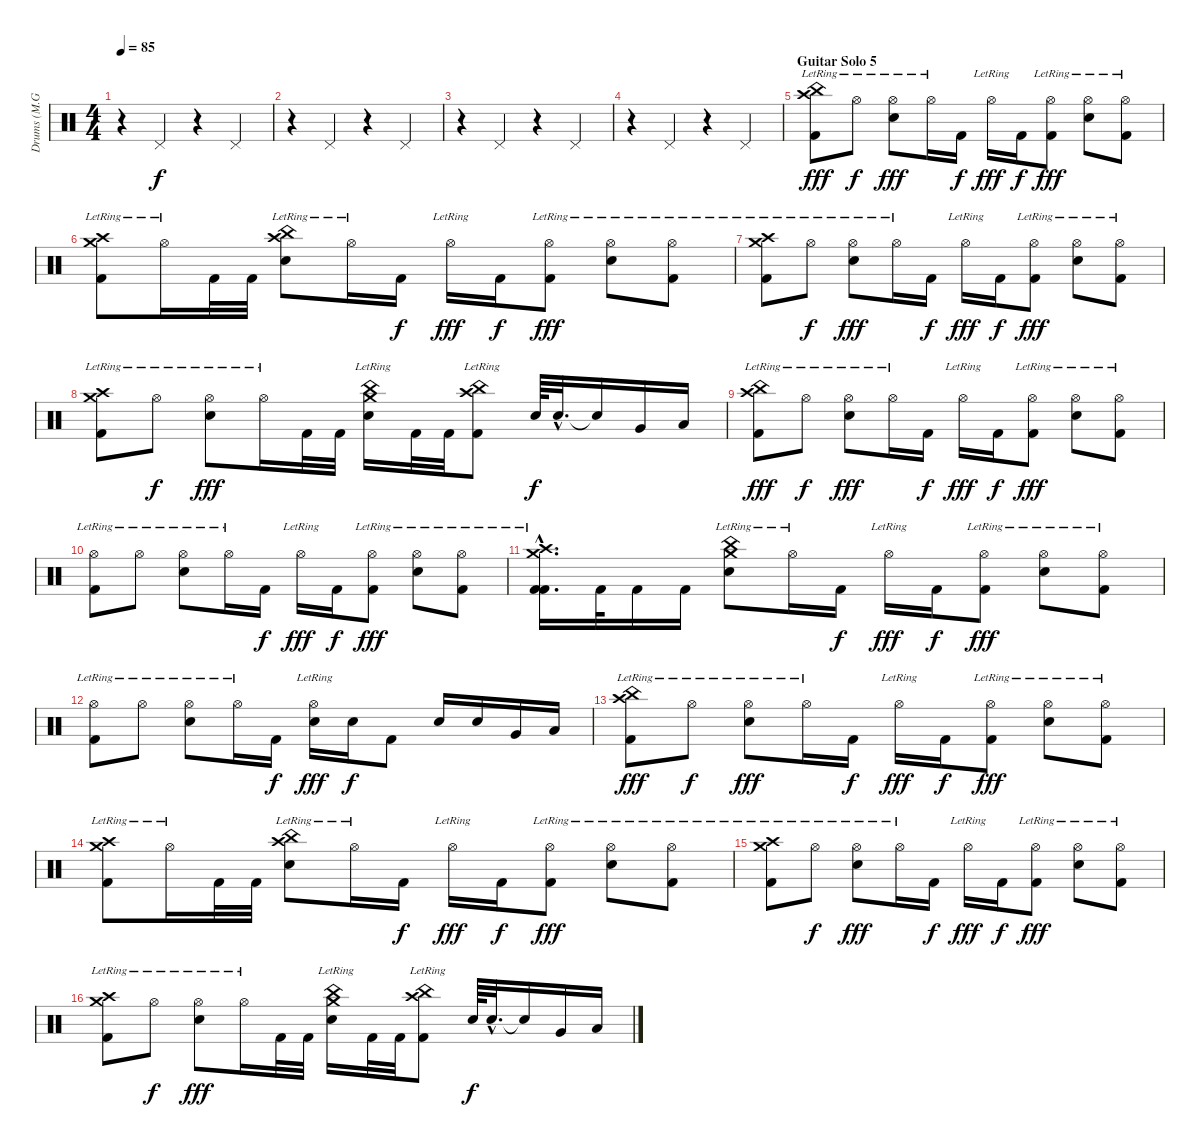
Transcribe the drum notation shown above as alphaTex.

\track ("Drums (M.Grosskopf)" "Drums (M.G") {instrument percussion}
\staff {score}
\articulation defaults
\ts (4 4)
\tempo 85
\clef neutral
\ks c
r.4{dy f} "Pedal Hi-Hat (hit)".4 r.4 "Pedal Hi-Hat (hit)".4 |
r.4 "Pedal Hi-Hat (hit)".4 r.4 "Pedal Hi-Hat (hit)".4 |
r.4 "Pedal Hi-Hat (hit)".4 r.4 "Pedal Hi-Hat (hit)".4 |
r.4 "Pedal Hi-Hat (hit)".4 r.4 "Pedal Hi-Hat (hit)".4 |
\section ("" "Guitar Solo 5")
("Crash high (hit)"{lr} "Kick (hit) 2" "China (hit)"{lr}).8{dy fff} "Hi-Hat (open)"{lr}.8{dy f} ("Hi-Hat (open)"{lr} "Electric Snare (hit)").8{dy fff} "Hi-Hat (open)"{lr}.16 "Kick (hit) 2".16{dy f} "Hi-Hat (open)"{lr}.16{dy fff} "Kick (hit) 2".16{dy f} ("Hi-Hat (open)"{lr} "Kick (hit) 2").8{dy fff} ("Hi-Hat (open)"{lr} "Electric Snare (hit)").8 ("Hi-Hat (open)"{lr} "Kick (hit) 2").8 |
("Crash high (hit)"{lr} "Crash medium (hit)"{lr} "Kick (hit) 2").8 "Hi-Hat (open)"{lr}.16 "Kick (hit) 2".32 "Kick (hit) 2".32 ("Crash high (hit)"{lr} "Electric Snare (hit)" "China (hit)"{lr}).8 "Hi-Hat (open)"{lr}.16 "Kick (hit) 2".16{dy f} "Hi-Hat (open)"{lr}.16{dy fff} "Kick (hit) 2".16{dy f} ("Hi-Hat (open)"{lr} "Kick (hit) 2").8{dy fff} ("Hi-Hat (open)"{lr} "Electric Snare (hit)").8 ("Hi-Hat (open)"{lr} "Kick (hit) 2").8 |
("Crash high (hit)"{lr} "Crash medium (hit)"{lr} "Kick (hit) 2").8 "Hi-Hat (open)"{lr}.8{dy f} ("Hi-Hat (open)"{lr} "Electric Snare (hit)").8{dy fff} "Hi-Hat (open)"{lr}.16 "Kick (hit) 2".16{dy f} "Hi-Hat (open)"{lr}.16{dy fff} "Kick (hit) 2".16{dy f} ("Hi-Hat (open)"{lr} "Kick (hit) 2").8{dy fff} ("Hi-Hat (open)"{lr} "Electric Snare (hit)").8 ("Hi-Hat (open)"{lr} "Kick (hit) 2").8 |
("Crash high (hit)"{lr} "Crash medium (hit)"{lr} "Kick (hit) 2").8 "Hi-Hat (open)"{lr}.8{dy f} ("Hi-Hat (open)"{lr} "Electric Snare (hit)").8{dy fff} "Hi-Hat (open)"{lr}.16 "Kick (hit) 2".32 "Kick (hit) 2".32 ("Crash medium (hit)"{lr} "China (hit)"{lr} "Electric Snare (hit)").16 "Kick (hit) 2".32 "Kick (hit) 2".32 ("Crash high (hit)"{lr} "China (hit)"{lr} "Kick (hit) 2").8 "Electric Snare (hit)".64{dy f} "Electric Snare (hit)"{hac}.32{d} "Snare (hit)"{t}.16 "Very Low Tom (hit)".16 "Low Floor Tom (hit)".16 |
("Crash high (hit)"{lr} "Kick (hit) 2" "China (hit)"{lr}).8{dy fff} "Hi-Hat (open)"{lr}.8{dy f} ("Hi-Hat (open)"{lr} "Electric Snare (hit)").8{dy fff} "Hi-Hat (open)"{lr}.16 "Kick (hit) 2".16{dy f} "Hi-Hat (open)"{lr}.16{dy fff} "Kick (hit) 2".16{dy f} ("Hi-Hat (open)"{lr} "Kick (hit) 2").8{dy fff} ("Hi-Hat (open)"{lr} "Electric Snare (hit)").8 ("Hi-Hat (open)"{lr} "Kick (hit) 2").8 |
("Hi-Hat (open)"{lr} "Kick (hit) 2").8 "Hi-Hat (open)"{lr}.8 ("Hi-Hat (open)"{lr} "Electric Snare (hit)").8 "Hi-Hat (open)"{lr}.16 "Kick (hit) 2".16{dy f} "Hi-Hat (open)"{lr}.16{dy fff} "Kick (hit) 2".16{dy f} ("Hi-Hat (open)"{lr} "Kick (hit) 2").8{dy fff} ("Hi-Hat (open)"{lr} "Electric Snare (hit)").8 ("Hi-Hat (open)"{lr} "Kick (hit) 2").8 |
("Crash high (hit)"{hac lr} "Crash medium (hit)"{hac lr} "Kick (hit) 2"{hac} "Kick (hit) 2"{hac}).16{d} "Kick (hit) 2".32 "Kick (hit) 2".16 "Kick (hit) 2".16 ("China (hit)"{lr} "Crash medium (hit)"{lr} "Electric Snare (hit)").8 "Hi-Hat (open)"{lr}.16 "Kick (hit) 2".16{dy f} "Hi-Hat (open)"{lr}.16{dy fff} "Kick (hit) 2".16{dy f} ("Hi-Hat (open)"{lr} "Kick (hit) 2").8{dy fff} ("Hi-Hat (open)"{lr} "Electric Snare (hit)").8 ("Hi-Hat (open)"{lr} "Kick (hit) 2").8 |
("Hi-Hat (open)"{lr} "Kick (hit) 2").8 "Hi-Hat (open)"{lr}.8 ("Hi-Hat (open)"{lr} "Electric Snare (hit)").8 "Hi-Hat (open)"{lr}.16 "Kick (hit) 2".16{dy f} ("Hi-Hat (open)"{lr} "Electric Snare (hit)").16{dy fff} "Electric Snare (hit)".16{dy f} "Kick (hit) 2".8 "Electric Snare (hit)".16 "Electric Snare (hit)".16 "Very Low Tom (hit)".16 "Low Floor Tom (hit)".16 |
("Crash high (hit)"{lr} "Kick (hit) 2" "China (hit)"{lr}).8{dy fff} "Hi-Hat (open)"{lr}.8{dy f} ("Hi-Hat (open)"{lr} "Electric Snare (hit)").8{dy fff} "Hi-Hat (open)"{lr}.16 "Kick (hit) 2".16{dy f} "Hi-Hat (open)"{lr}.16{dy fff} "Kick (hit) 2".16{dy f} ("Hi-Hat (open)"{lr} "Kick (hit) 2").8{dy fff} ("Hi-Hat (open)"{lr} "Electric Snare (hit)").8 ("Hi-Hat (open)"{lr} "Kick (hit) 2").8 |
("Crash high (hit)"{lr} "Crash medium (hit)"{lr} "Kick (hit) 2").8 "Hi-Hat (open)"{lr}.16 "Kick (hit) 2".32 "Kick (hit) 2".32 ("Crash high (hit)"{lr} "Electric Snare (hit)" "China (hit)"{lr}).8 "Hi-Hat (open)"{lr}.16 "Kick (hit) 2".16{dy f} "Hi-Hat (open)"{lr}.16{dy fff} "Kick (hit) 2".16{dy f} ("Hi-Hat (open)"{lr} "Kick (hit) 2").8{dy fff} ("Hi-Hat (open)"{lr} "Electric Snare (hit)").8 ("Hi-Hat (open)"{lr} "Kick (hit) 2").8 |
("Crash high (hit)"{lr} "Crash medium (hit)"{lr} "Kick (hit) 2").8 "Hi-Hat (open)"{lr}.8{dy f} ("Hi-Hat (open)"{lr} "Electric Snare (hit)").8{dy fff} "Hi-Hat (open)"{lr}.16 "Kick (hit) 2".16{dy f} "Hi-Hat (open)"{lr}.16{dy fff} "Kick (hit) 2".16{dy f} ("Hi-Hat (open)"{lr} "Kick (hit) 2").8{dy fff} ("Hi-Hat (open)"{lr} "Electric Snare (hit)").8 ("Hi-Hat (open)"{lr} "Kick (hit) 2").8 |
("Crash high (hit)"{lr} "Crash medium (hit)"{lr} "Kick (hit) 2").8 "Hi-Hat (open)"{lr}.8{dy f} ("Hi-Hat (open)"{lr} "Electric Snare (hit)").8{dy fff} "Hi-Hat (open)"{lr}.16 "Kick (hit) 2".32 "Kick (hit) 2".32 ("Crash medium (hit)"{lr} "China (hit)"{lr} "Electric Snare (hit)").16 "Kick (hit) 2".32 "Kick (hit) 2".32 ("Crash high (hit)"{lr} "China (hit)"{lr} "Kick (hit) 2").8 "Electric Snare (hit)".64{dy f} "Electric Snare (hit)"{hac}.32{d} "Snare (hit)"{t}.16 "Very Low Tom (hit)".16 "Low Floor Tom (hit)".16
